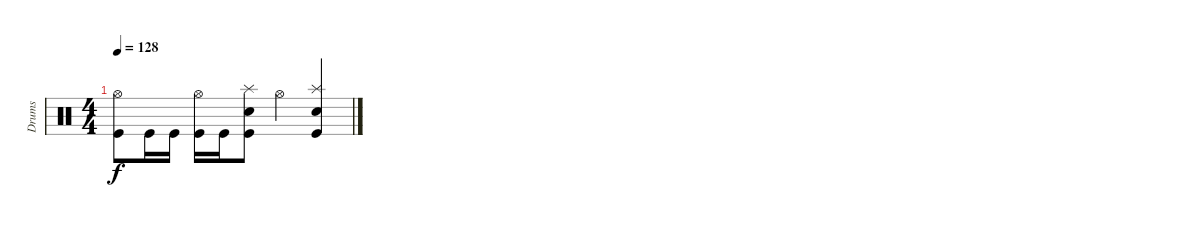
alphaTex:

\track ("Drums" "Drums") {instrument percussion}
\staff {score}
\articulation defaults
\ts (4 4)
\tempo 128
\clef neutral
\ks c
("Hi-Hat (open)" "Kick (hit)").8{dy f} "Kick (hit)".16 "Kick (hit)".16 ("Hi-Hat (open)" "Kick (hit)").16 "Kick (hit)".16 ("Splash (hit)" "Snare (hit) 2" "Kick (hit)").8 "Hi-Hat (open)".4 ("Splash (hit)" "Snare (hit) 2" "Kick (hit)").4
